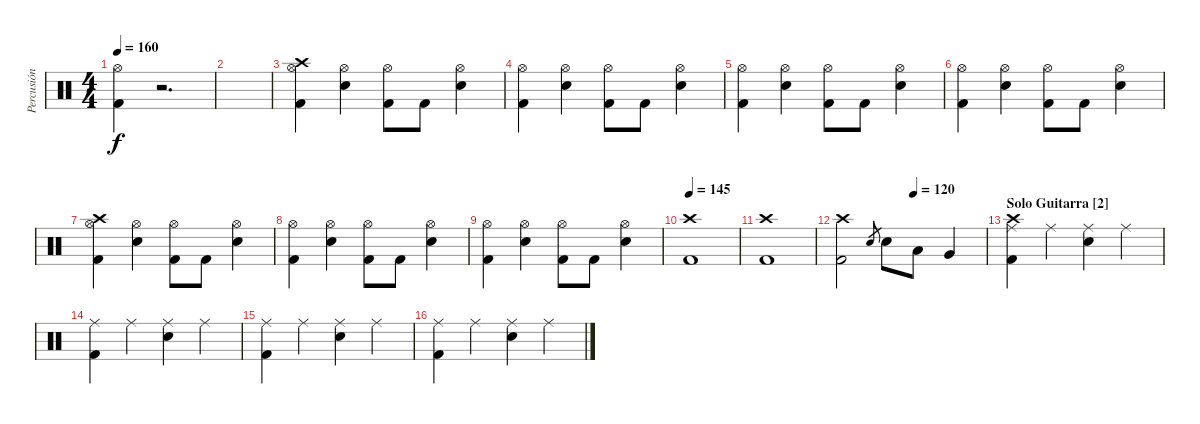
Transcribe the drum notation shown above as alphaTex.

\track ("Percusión" "Percusión") {instrument percussion}
\staff {score}
\articulation defaults
\ts (4 4)
\tempo 160
\clef neutral
\ks c
("Hi-Hat (open)" "Kick (hit) 2").4{dy f} r.2{d} |
|
("Crash high (hit)" "Hi-Hat (open)" "Kick (hit) 2").4 ("Hi-Hat (open)" "Snare (hit) 2").4 ("Hi-Hat (open)" "Kick (hit) 2").8 "Kick (hit) 2".8 ("Hi-Hat (open)" "Snare (hit) 2").4 |
("Hi-Hat (open)" "Kick (hit) 2").4 ("Hi-Hat (open)" "Snare (hit) 2").4 ("Hi-Hat (open)" "Kick (hit) 2").8 "Kick (hit) 2".8 ("Hi-Hat (open)" "Snare (hit) 2").4 |
("Hi-Hat (open)" "Kick (hit) 2").4 ("Hi-Hat (open)" "Snare (hit) 2").4 ("Hi-Hat (open)" "Kick (hit) 2").8 "Kick (hit) 2".8 ("Hi-Hat (open)" "Snare (hit) 2").4 |
("Hi-Hat (open)" "Kick (hit) 2").4 ("Hi-Hat (open)" "Snare (hit) 2").4 ("Hi-Hat (open)" "Kick (hit) 2").8 "Kick (hit) 2".8 ("Hi-Hat (open)" "Snare (hit) 2").4 |
("Crash high (hit)" "Hi-Hat (open)" "Kick (hit) 2").4 ("Hi-Hat (open)" "Snare (hit) 2").4 ("Hi-Hat (open)" "Kick (hit) 2").8 "Kick (hit) 2".8 ("Hi-Hat (open)" "Snare (hit) 2").4 |
("Hi-Hat (open)" "Kick (hit) 2").4 ("Hi-Hat (open)" "Snare (hit) 2").4 ("Hi-Hat (open)" "Kick (hit) 2").8 "Kick (hit) 2".8 ("Hi-Hat (open)" "Snare (hit) 2").4 |
("Hi-Hat (open)" "Kick (hit) 2").4 ("Hi-Hat (open)" "Snare (hit) 2").4 ("Hi-Hat (open)" "Kick (hit) 2").8 "Kick (hit) 2".8 ("Hi-Hat (open)" "Snare (hit) 2").4 |
\tempo 145
("Crash high (hit)" "Kick (hit) 2").1 |
("Crash high (hit)" "Kick (hit) 2").1 |
\tempo (120 0.5)
("Crash high (hit)" "Kick (hit) 2").2 "Snare (hit) 2".8{gr} "Snare (hit) 2".8 "Low Tom (hit)".8 "Very Low Tom (hit)".4 |
\section ("" "Solo Guitarra [2]")
("Crash high (hit)" "Ride (middle)" "Kick (hit) 2").4 "Ride (middle)".4 ("Ride (middle)" "Snare (hit) 2").4 "Ride (middle)".4 |
("Ride (middle)" "Kick (hit) 2").4 "Ride (middle)".4 ("Ride (middle)" "Snare (hit) 2").4 "Ride (middle)".4 |
("Ride (middle)" "Kick (hit) 2").4 "Ride (middle)".4 ("Ride (middle)" "Snare (hit) 2").4 "Ride (middle)".4 |
("Ride (middle)" "Kick (hit) 2").4 "Ride (middle)".4 ("Ride (middle)" "Snare (hit) 2").4 "Ride (middle)".4
